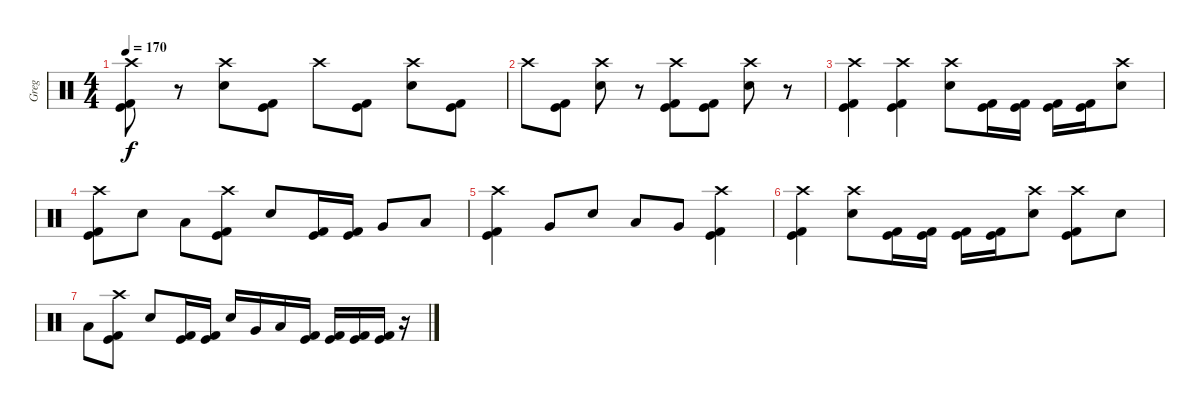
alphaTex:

\track ("Greg" "Greg") {instrument percussion}
\staff {score}
\articulation defaults
\ts (4 4)
\tempo 170
\clef neutral
\ks c
("Crash high (hit)" "Kick (hit)" "Kick (hit) 2").8{dy f} r.8 ("Crash high (hit)" "Snare (hit) 2").8 ("Kick (hit)" "Kick (hit) 2").8 "Crash high (hit)".8 ("Kick (hit)" "Kick (hit) 2").8 ("Crash high (hit)" "Snare (hit) 2").8 ("Kick (hit)" "Kick (hit) 2").8 |
"Crash high (hit)".8 ("Kick (hit)" "Kick (hit) 2").8 ("Crash high (hit)" "Snare (hit) 2").8 r.8 ("Crash high (hit)" "Kick (hit)" "Kick (hit) 2").8 ("Kick (hit)" "Kick (hit) 2").8 ("Crash high (hit)" "Snare (hit) 2").8 r.8 |
("Crash high (hit)" "Kick (hit)" "Kick (hit) 2").4 ("Crash high (hit)" "Kick (hit)" "Kick (hit) 2").4 ("Crash high (hit)" "Snare (hit) 2").8 ("Kick (hit)" "Kick (hit) 2").16 ("Kick (hit)" "Kick (hit) 2").16 ("Kick (hit)" "Kick (hit) 2").16 ("Kick (hit)" "Kick (hit) 2").16 ("Crash high (hit)" "Snare (hit) 2").8 |
("Crash high (hit)" "Kick (hit)" "Kick (hit) 2").8 "Snare (hit) 2".8 "Low Tom (hit)".8 ("Crash high (hit)" "Kick (hit)" "Kick (hit) 2").8 "Snare (hit) 2".8 ("Kick (hit)" "Kick (hit) 2").16 ("Kick (hit)" "Kick (hit) 2").16 "Very Low Tom (hit)".8 "Low Tom (hit)".8 |
("Crash high (hit)" "Kick (hit)" "Kick (hit) 2").4 "Very Low Tom (hit)".8 "Snare (hit) 2".8 "Low Tom (hit)".8 "Very Low Tom (hit)".8 ("Crash high (hit)" "Kick (hit)" "Kick (hit) 2").4 |
("Crash high (hit)" "Kick (hit)" "Kick (hit) 2").4 ("Crash high (hit)" "Snare (hit) 2").8 ("Kick (hit)" "Kick (hit) 2").16 ("Kick (hit)" "Kick (hit) 2").16 ("Kick (hit)" "Kick (hit) 2").16 ("Kick (hit)" "Kick (hit) 2").16 ("Crash high (hit)" "Snare (hit) 2").8 ("Crash high (hit)" "Kick (hit)" "Kick (hit) 2").8 "Snare (hit) 2".8 |
"Low Tom (hit)".8 ("Crash high (hit)" "Kick (hit)" "Kick (hit) 2").8 "Snare (hit) 2".8 ("Kick (hit)" "Kick (hit) 2").16 ("Kick (hit)" "Kick (hit) 2").16 "Snare (hit) 2".16 "Very Low Tom (hit)".16 "Low Tom (hit)".16 ("Kick (hit)" "Kick (hit) 2").16 ("Kick (hit)" "Kick (hit) 2").16 ("Kick (hit)" "Kick (hit) 2").16 ("Kick (hit)" "Kick (hit) 2").16 r.16
